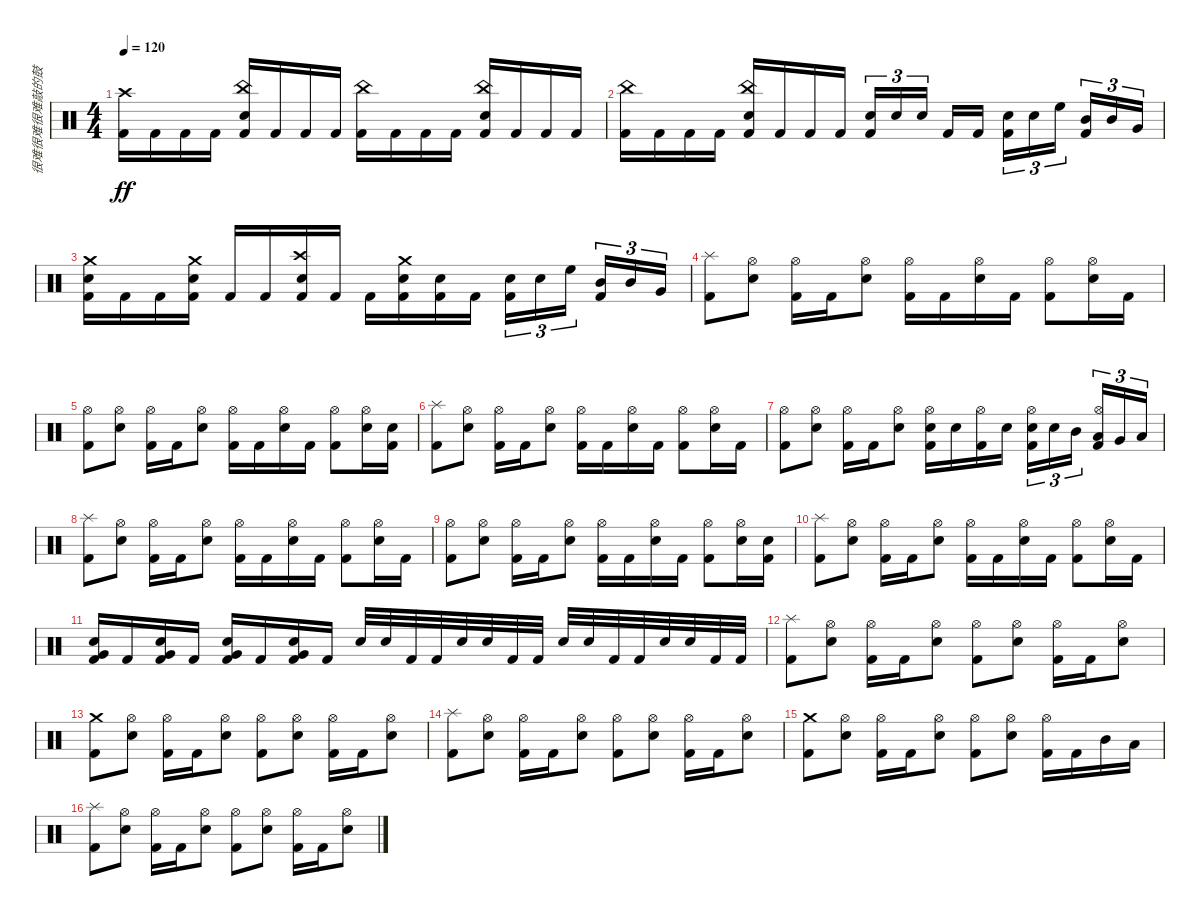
\track ("很难很难很难敲的鼓" "很难很难很难敲的鼓") {instrument percussion}
\staff {score}
\articulation defaults
\ts (4 4)
\tempo 120
\clef neutral
\ks c
("Kick (hit) 2" "Crash high (hit)").16{dy ff} "Kick (hit) 2".16 "Kick (hit) 2".16 "Kick (hit) 2".16 ("China (hit)" "Kick (hit) 2" "Electric Snare (hit)").16 "Kick (hit) 2".16 "Kick (hit) 2".16 "Kick (hit) 2".16 ("China (hit)" "Kick (hit) 2").16 "Kick (hit) 2".16 "Kick (hit) 2".16 "Kick (hit) 2".16 ("China (hit)" "Kick (hit) 2" "Electric Snare (hit)").16 "Kick (hit) 2".16 "Kick (hit) 2".16 "Kick (hit) 2".16 |
("China (hit)" "Kick (hit) 2").16 "Kick (hit) 2".16 "Kick (hit) 2".16 "Kick (hit) 2".16 ("China (hit)" "Kick (hit) 2" "Electric Snare (hit)").16 "Kick (hit) 2".16 "Kick (hit) 2".16 "Kick (hit) 2".16 ("Electric Snare (hit)" "Kick (hit) 2").16{tu (3 2)} "Electric Snare (hit)".16{tu (3 2)} "Electric Snare (hit)".16{tu (3 2) beam splitsecondary} "Kick (hit) 2".16 "Kick (hit) 2".16 ("Electric Snare (hit)" "Kick (hit) 2").16{tu (3 2)} "Electric Snare (hit)".16{tu (3 2)} "High Floor Tom (hit)".16{tu (3 2) beam splitsecondary} ("Kick (hit) 2" "Mid Tom (hit)").16{tu (3 2)} "Mid Tom (hit)".16{tu (3 2)} "Very Low Tom (hit)".16{tu (3 2)} |
("Kick (hit) 2" "Electric Snare (hit)" "Crash medium (hit)").16 "Kick (hit) 2".16 "Kick (hit) 2".16 ("Kick (hit) 2" "Electric Snare (hit)" "Crash medium (hit)").16 "Kick (hit) 2".16 "Kick (hit) 2".16 ("Kick (hit) 2" "Electric Snare (hit)" "Crash high (hit)").16 "Kick (hit) 2".16 "Kick (hit) 2".16 ("Kick (hit) 2" "Electric Snare (hit)" "Crash medium (hit)").16 ("Kick (hit) 2" "Electric Snare (hit)").16 "Kick (hit) 2".16 ("Kick (hit) 2" "Electric Snare (hit)").16{tu (3 2)} "Electric Snare (hit)".16{tu (3 2)} "High Floor Tom (hit)".16{tu (3 2) beam splitsecondary} ("Kick (hit) 2" "Mid Tom (hit)").16{tu (3 2)} "Mid Tom (hit)".16{tu (3 2)} "Very Low Tom (hit)".16{tu (3 2)} |
("Kick (hit) 2" "Splash (hit)").8 ("Electric Snare (hit)" "Hi-Hat (open)").8 ("Kick (hit) 2" "Hi-Hat (open)").16 "Kick (hit) 2".16 ("Electric Snare (hit)" "Hi-Hat (open)").8 ("Kick (hit) 2" "Hi-Hat (open)").16 "Kick (hit) 2".16 ("Electric Snare (hit)" "Hi-Hat (open)").16 "Kick (hit) 2".16 ("Kick (hit) 2" "Hi-Hat (open)").8 ("Electric Snare (hit)" "Hi-Hat (open)").16 "Kick (hit) 2".16 |
("Kick (hit) 2" "Hi-Hat (open)").8 ("Electric Snare (hit)" "Hi-Hat (open)").8 ("Kick (hit) 2" "Hi-Hat (open)").16 "Kick (hit) 2".16 ("Electric Snare (hit)" "Hi-Hat (open)").8 ("Kick (hit) 2" "Hi-Hat (open)").16 "Kick (hit) 2".16 ("Electric Snare (hit)" "Hi-Hat (open)").16 "Kick (hit) 2".16 ("Kick (hit) 2" "Hi-Hat (open)").8 ("Electric Snare (hit)" "Hi-Hat (open)").16 ("Kick (hit) 2" "Electric Snare (hit)").16 |
("Kick (hit) 2" "Splash (hit)").8 ("Electric Snare (hit)" "Hi-Hat (open)").8 ("Kick (hit) 2" "Hi-Hat (open)").16 "Kick (hit) 2".16 ("Electric Snare (hit)" "Hi-Hat (open)").8 ("Kick (hit) 2" "Hi-Hat (open)").16 "Kick (hit) 2".16 ("Electric Snare (hit)" "Hi-Hat (open)").16 "Kick (hit) 2".16 ("Kick (hit) 2" "Hi-Hat (open)").8 ("Electric Snare (hit)" "Hi-Hat (open)").16 "Kick (hit) 2".16 |
("Kick (hit) 2" "Hi-Hat (open)").8 ("Electric Snare (hit)" "Hi-Hat (open)").8 ("Kick (hit) 2" "Hi-Hat (open)").16 "Kick (hit) 2".16 ("Electric Snare (hit)" "Hi-Hat (open)").8 ("Kick (hit) 2" "Electric Snare (hit)" "Hi-Hat (open)").16 "Electric Snare (hit)".16 ("Kick (hit) 2" "Hi-Hat (open)").16 "Electric Snare (hit)".16 ("Kick (hit) 2" "Electric Snare (hit)" "Hi-Hat (open)").16{tu (3 2)} "Electric Snare (hit)".16{tu (3 2)} "Mid Tom (hit)".16{tu (3 2) beam splitsecondary} ("Kick (hit) 2" "Hi-Hat (open)" "Low Tom (hit)").16{tu (3 2)} "Very Low Tom (hit)".16{tu (3 2)} "Low Floor Tom (hit)".16{tu (3 2)} |
("Kick (hit) 2" "Splash (hit)").8 ("Electric Snare (hit)" "Hi-Hat (open)").8 ("Kick (hit) 2" "Hi-Hat (open)").16 "Kick (hit) 2".16 ("Electric Snare (hit)" "Hi-Hat (open)").8 ("Kick (hit) 2" "Hi-Hat (open)").16 "Kick (hit) 2".16 ("Electric Snare (hit)" "Hi-Hat (open)").16 "Kick (hit) 2".16 ("Kick (hit) 2" "Hi-Hat (open)").8 ("Electric Snare (hit)" "Hi-Hat (open)").16 "Kick (hit) 2".16 |
("Kick (hit) 2" "Hi-Hat (open)").8 ("Electric Snare (hit)" "Hi-Hat (open)").8 ("Kick (hit) 2" "Hi-Hat (open)").16 "Kick (hit) 2".16 ("Electric Snare (hit)" "Hi-Hat (open)").8 ("Kick (hit) 2" "Hi-Hat (open)").16 "Kick (hit) 2".16 ("Electric Snare (hit)" "Hi-Hat (open)").16 "Kick (hit) 2".16 ("Kick (hit) 2" "Hi-Hat (open)").8 ("Electric Snare (hit)" "Hi-Hat (open)").16 ("Kick (hit) 2" "Electric Snare (hit)").16 |
("Kick (hit) 2" "Splash (hit)").8 ("Electric Snare (hit)" "Hi-Hat (open)").8 ("Kick (hit) 2" "Hi-Hat (open)").16 "Kick (hit) 2".16 ("Electric Snare (hit)" "Hi-Hat (open)").8 ("Kick (hit) 2" "Hi-Hat (open)").16 "Kick (hit) 2".16 ("Electric Snare (hit)" "Hi-Hat (open)").16 "Kick (hit) 2".16 ("Kick (hit) 2" "Hi-Hat (open)").8 ("Electric Snare (hit)" "Hi-Hat (open)").16 "Kick (hit) 2".16 |
("Kick (hit) 2" "Electric Snare (hit)" "Very Low Tom (hit)").16 "Kick (hit) 2".16 ("Kick (hit) 2" "Electric Snare (hit)" "Very Low Tom (hit)").16 "Kick (hit) 2".16 ("Kick (hit) 2" "Electric Snare (hit)" "Very Low Tom (hit)").16 "Kick (hit) 2".16 ("Kick (hit) 2" "Electric Snare (hit)" "Very Low Tom (hit)").16 "Kick (hit) 2".16 "Electric Snare (hit)".32 "Electric Snare (hit)".32 "Kick (hit) 2".32 "Kick (hit) 2".32 "Electric Snare (hit)".32 "Electric Snare (hit)".32 "Kick (hit) 2".32 "Kick (hit) 2".32 "Electric Snare (hit)".32 "Electric Snare (hit)".32 "Kick (hit) 2".32 "Kick (hit) 2".32 "Electric Snare (hit)".32 "Electric Snare (hit)".32 "Kick (hit) 2".32 "Kick (hit) 2".32 |
("Kick (hit) 2" "Splash (hit)").8 ("Electric Snare (hit)" "Hi-Hat (open)").8 ("Kick (hit) 2" "Hi-Hat (open)").16 "Kick (hit) 2".16 ("Electric Snare (hit)" "Hi-Hat (open)").8 ("Kick (hit) 2" "Hi-Hat (open)").8 ("Electric Snare (hit)" "Hi-Hat (open)").8 ("Kick (hit) 2" "Hi-Hat (open)").16 "Kick (hit) 2".16 ("Electric Snare (hit)" "Hi-Hat (open)").8 |
("Kick (hit) 2" "Crash medium (hit)").8 ("Electric Snare (hit)" "Hi-Hat (open)").8 ("Kick (hit) 2" "Hi-Hat (open)").16 "Kick (hit) 2".16 ("Electric Snare (hit)" "Hi-Hat (open)").8 ("Kick (hit) 2" "Hi-Hat (open)").8 ("Electric Snare (hit)" "Hi-Hat (open)").8 ("Kick (hit) 2" "Hi-Hat (open)").16 "Kick (hit) 2".16 ("Electric Snare (hit)" "Hi-Hat (open)").8 |
("Kick (hit) 2" "Splash (hit)").8 ("Electric Snare (hit)" "Hi-Hat (open)").8 ("Kick (hit) 2" "Hi-Hat (open)").16 "Kick (hit) 2".16 ("Electric Snare (hit)" "Hi-Hat (open)").8 ("Kick (hit) 2" "Hi-Hat (open)").8 ("Electric Snare (hit)" "Hi-Hat (open)").8 ("Kick (hit) 2" "Hi-Hat (open)").16 "Kick (hit) 2".16 ("Electric Snare (hit)" "Hi-Hat (open)").8 |
("Kick (hit) 2" "Crash medium (hit)").8 ("Electric Snare (hit)" "Hi-Hat (open)").8 ("Kick (hit) 2" "Hi-Hat (open)").16 "Kick (hit) 2".16 ("Electric Snare (hit)" "Hi-Hat (open)").8 ("Kick (hit) 2" "Hi-Hat (open)").8 ("Electric Snare (hit)" "Hi-Hat (open)").8 ("Kick (hit) 2" "Hi-Hat (open)").16 "Kick (hit) 2".16 "Mid Tom (hit)".16 "Low Floor Tom (hit)".16 |
("Kick (hit) 2" "Splash (hit)").8 ("Electric Snare (hit)" "Hi-Hat (open)").8 ("Kick (hit) 2" "Hi-Hat (open)").16 "Kick (hit) 2".16 ("Electric Snare (hit)" "Hi-Hat (open)").8 ("Kick (hit) 2" "Hi-Hat (open)").8 ("Electric Snare (hit)" "Hi-Hat (open)").8 ("Kick (hit) 2" "Hi-Hat (open)").16 "Kick (hit) 2".16 ("Electric Snare (hit)" "Hi-Hat (open)").8
